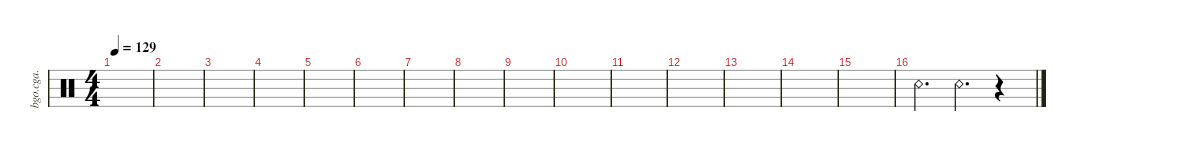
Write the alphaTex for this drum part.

\defaultSystemsLayout 4
\hideDynamics
\bracketExtendMode nobrackets
\otherSystemsTrackNameOrientation horizontal
\track ("Alex's percussion" "bgo.cga.") {instrument percussion}
\staff {score}
\articulation defaults
\ts (4 4)
\tempo 129
\clef neutral
\ks c
|
|
|
|
|
|
|
|
|
|
|
|
|
|
|
"Snare (rim shot)".4{d} "Snare (rim shot)".4{d} r.4
